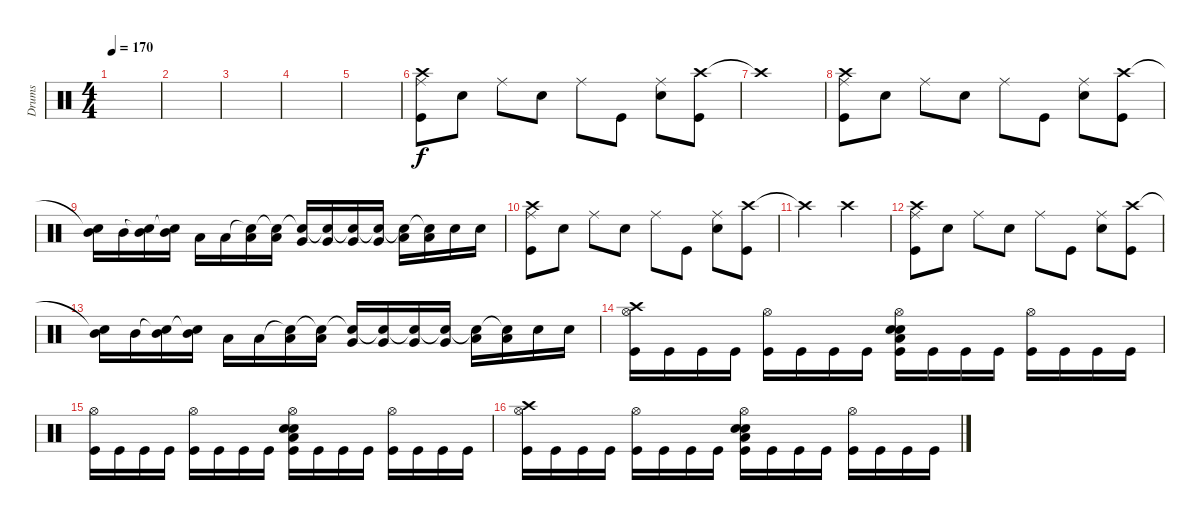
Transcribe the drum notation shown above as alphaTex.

\track ("Drums" "Drums") {instrument percussion}
\staff {score}
\articulation defaults
\ts (4 4)
\tempo 170
\clef neutral
\ks c
|
|
|
|
|
("Ride (middle)" "Crash high (hit)" "Kick (hit)").8 "Electric Snare (hit)".8 "Ride (middle)".8 "Electric Snare (hit)".8 "Ride (middle)".8 "Kick (hit)".8 ("Ride (middle)" "Electric Snare (hit)").8 ("Crash high (hit)" "Kick (hit)").8 |
"Crash high (hit)"{t}.1 |
("Ride (middle)" "Crash high (hit)" "Kick (hit)").8 "Electric Snare (hit)".8 "Ride (middle)".8 "Electric Snare (hit)".8 "Ride (middle)".8 "Kick (hit)".8 ("Ride (middle)" "Electric Snare (hit)").8 ("Crash high (hit)" "Kick (hit)").8 |
("Snare (hit)"{t} "Mid Tom (hit)").16 "Mid Tom (hit)".16 ("Snare (hit)"{t} "Mid Tom (hit)").16 ("Snare (hit)"{t} "Mid Tom (hit)").16 "Low Tom (hit)".16 "Low Tom (hit)".16 ("Snare (hit)"{t} "Low Tom (hit)").16 ("Snare (hit)"{t} "Low Tom (hit)").16 ("Snare (hit)"{t} "Very Low Tom (hit)").16 ("Snare (hit)"{t} "Very Low Tom (hit)").16 ("Snare (hit)"{t} "Very Low Tom (hit)").16 ("Snare (hit)"{t} "Very Low Tom (hit)").16 ("Snare (hit)"{t} "Low Floor Tom (hit)").16 ("Snare (hit)"{t} "Low Floor Tom (hit)").16 "Electric Snare (hit)".16 "Electric Snare (hit)".16 |
("Ride (middle)" "Crash high (hit)" "Kick (hit)").8 "Electric Snare (hit)".8 "Ride (middle)".8 "Electric Snare (hit)".8 "Ride (middle)".8 "Kick (hit)".8 ("Ride (middle)" "Electric Snare (hit)").8 ("Crash high (hit)" "Kick (hit)").8 |
"Crash high (hit)"{t}.2 "Crash high (hit)".2 |
("Ride (middle)" "Crash high (hit)" "Kick (hit)").8 "Electric Snare (hit)".8 "Ride (middle)".8 "Electric Snare (hit)".8 "Ride (middle)".8 "Kick (hit)".8 ("Ride (middle)" "Electric Snare (hit)").8 ("Crash high (hit)" "Kick (hit)").8 |
("Snare (hit)"{t} "Mid Tom (hit)").16 "Mid Tom (hit)".16 ("Snare (hit)"{t} "Mid Tom (hit)").16 ("Snare (hit)"{t} "Mid Tom (hit)").16 "Low Tom (hit)".16 "Low Tom (hit)".16 ("Snare (hit)"{t} "Low Tom (hit)").16 ("Snare (hit)"{t} "Low Tom (hit)").16 ("Snare (hit)"{t} "Very Low Tom (hit)").16 ("Snare (hit)"{t} "Very Low Tom (hit)").16 ("Snare (hit)"{t} "Very Low Tom (hit)").16 ("Snare (hit)"{t} "Very Low Tom (hit)").16 ("Snare (hit)"{t} "Low Floor Tom (hit)").16 ("Snare (hit)"{t} "Low Floor Tom (hit)").16 "Electric Snare (hit)".16 "Electric Snare (hit)".16 |
("Crash high (hit)" "Hi-Hat (open)" "Kick (hit)").16 "Kick (hit)".16 "Kick (hit)".16 "Kick (hit)".16 ("Hi-Hat (open)" "Kick (hit)").16 "Kick (hit)".16 "Kick (hit)".16 "Kick (hit)".16 ("Low Floor Tom (hit)" "Hi-Hat (open)" "Electric Snare (hit)" "Electric Snare (hit)" "Kick (hit)").16 "Kick (hit)".16 "Kick (hit)".16 "Kick (hit)".16 ("Hi-Hat (open)" "Kick (hit)").16 "Kick (hit)".16 "Kick (hit)".16 "Kick (hit)".16 |
("Hi-Hat (open)" "Kick (hit)").16 "Kick (hit)".16 "Kick (hit)".16 "Kick (hit)".16 ("Hi-Hat (open)" "Kick (hit)").16 "Kick (hit)".16 "Kick (hit)".16 "Kick (hit)".16 ("Low Floor Tom (hit)" "Hi-Hat (open)" "Electric Snare (hit)" "Electric Snare (hit)" "Kick (hit)").16 "Kick (hit)".16 "Kick (hit)".16 "Kick (hit)".16 ("Hi-Hat (open)" "Kick (hit)").16 "Kick (hit)".16 "Kick (hit)".16 "Kick (hit)".16 |
("Crash high (hit)" "Hi-Hat (open)" "Kick (hit)").16 "Kick (hit)".16 "Kick (hit)".16 "Kick (hit)".16 ("Hi-Hat (open)" "Kick (hit)").16 "Kick (hit)".16 "Kick (hit)".16 "Kick (hit)".16 ("Low Floor Tom (hit)" "Hi-Hat (open)" "Electric Snare (hit)" "Electric Snare (hit)" "Kick (hit)").16 "Kick (hit)".16 "Kick (hit)".16 "Kick (hit)".16 ("Hi-Hat (open)" "Kick (hit)").16 "Kick (hit)".16 "Kick (hit)".16 "Kick (hit)".16
